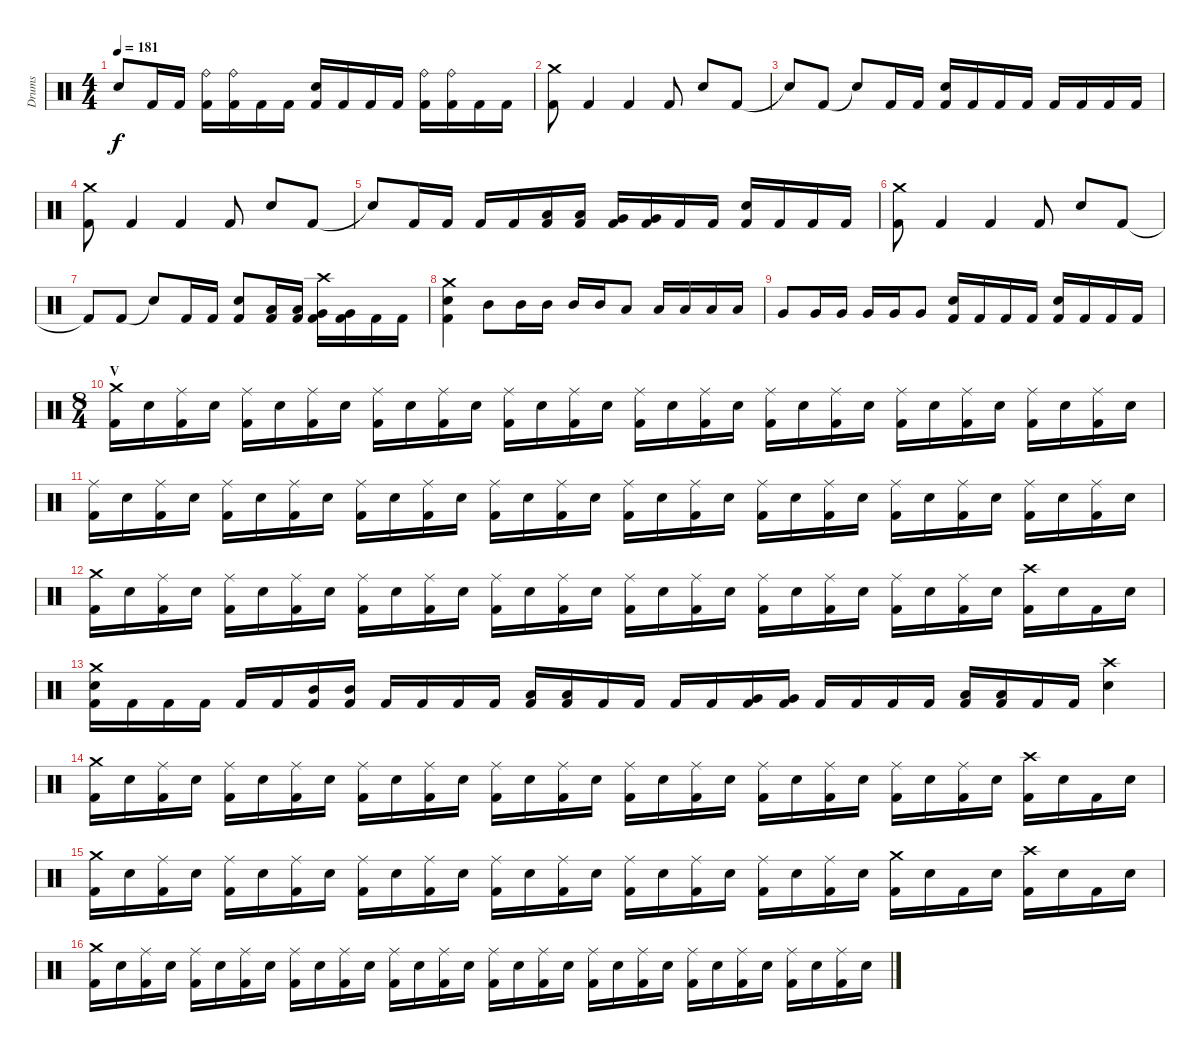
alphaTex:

\track ("Drums" "Drums") {instrument percussion}
\staff {score}
\articulation defaults
\ts (4 4)
\tempo 181
\clef neutral
\ks c "Snare (hit)"{t}.8{dy f} "Kick (hit) 2".16 "Kick (hit) 2".16
("Ride (bell)" "Kick (hit) 2").16 ("Ride (bell)" "Kick (hit) 2").16 "Kick (hit) 2".16 "Kick (hit) 2".16 ("Electric Snare (hit)" "Kick (hit) 2").16 "Kick (hit) 2".16 "Kick (hit) 2".16 "Kick (hit) 2".16 ("Ride (bell)" "Kick (hit) 2").16 ("Ride (bell)" "Kick (hit) 2").16 "Kick (hit) 2".16 "Kick (hit) 2".16 |
("Crash medium (hit)" "Kick (hit) 2").8 "Kick (hit) 2".4 "Kick (hit) 2".4 "Kick (hit) 2".8 "Electric Snare (hit)".8 "Kick (hit) 2".8 |
"Snare (hit)"{t}.8 "Kick (hit) 2".8 "Snare (hit)"{t}.8 "Kick (hit) 2".16 "Kick (hit) 2".16 ("Electric Snare (hit)" "Kick (hit) 2").16 "Kick (hit) 2".16 "Kick (hit) 2".16 "Kick (hit) 2".16 "Kick (hit) 2".16 "Kick (hit) 2".16 "Kick (hit) 2".16 "Kick (hit) 2".16 |
("Crash medium (hit)" "Kick (hit) 2").8 "Kick (hit) 2".4 "Kick (hit) 2".4 "Kick (hit) 2".8 "Electric Snare (hit)".8 "Kick (hit) 2".8 |
"Snare (hit)"{t}.8 "Kick (hit) 2".16 "Kick (hit) 2".16 "Kick (hit) 2".16 "Kick (hit) 2".16 ("Low Tom (hit)" "Kick (hit) 2").16 ("Low Tom (hit)" "Kick (hit) 2").16 ("Very Low Tom (hit)" "Kick (hit) 2").16 ("Very Low Tom (hit)" "Kick (hit) 2").16 "Kick (hit) 2".16 "Kick (hit) 2".16 ("Electric Snare (hit)" "Kick (hit) 2").16 "Kick (hit) 2".16 "Kick (hit) 2".16 "Kick (hit) 2".16 |
("Crash medium (hit)" "Kick (hit) 2").8 "Kick (hit) 2".4 "Kick (hit) 2".4 "Kick (hit) 2".8 "Electric Snare (hit)".8 "Kick (hit) 2".8 |
"Kick (hit) 2"{t}.8 "Kick (hit) 2".8 "Snare (hit)"{t}.8 "Kick (hit) 2".16 "Kick (hit) 2".16 ("Electric Snare (hit)" "Kick (hit) 2").8 ("Low Tom (hit)" "Kick (hit) 2").16 ("Low Tom (hit)" "Kick (hit) 2").16 ("Crash high (hit)" "Very Low Tom (hit)" "Kick (hit) 2").16 ("Very Low Tom (hit)" "Kick (hit) 2").16 "Kick (hit) 2".16 "Kick (hit) 2".16 |
("Crash medium (hit)" "Electric Snare (hit)" "Kick (hit) 2").4 "Mid Tom (hit)".8 "Mid Tom (hit)".16 "Mid Tom (hit)".16 "Mid Tom (hit)".16 "Mid Tom (hit)".16 "Low Tom (hit)".8 "Low Tom (hit)".16 "Low Tom (hit)".16 "Low Tom (hit)".16 "Low Tom (hit)".16 |
"Very Low Tom (hit)".8 "Very Low Tom (hit)".16 "Very Low Tom (hit)".16 "Very Low Tom (hit)".16 "Very Low Tom (hit)".16 "Very Low Tom (hit)".8 ("Electric Snare (hit)" "Kick (hit) 2").16 "Kick (hit) 2".16 "Kick (hit) 2".16 "Kick (hit) 2".16 ("Electric Snare (hit)" "Kick (hit) 2").16 "Kick (hit) 2".16 "Kick (hit) 2".16 "Kick (hit) 2".16 |
\ts (8 4)
\section ("" "V")
("Crash medium (hit)" "Kick (hit) 2").16 "Electric Snare (hit)".16 ("Ride (middle)" "Kick (hit) 2").16 "Electric Snare (hit)".16 ("Ride (middle)" "Kick (hit) 2").16 "Electric Snare (hit)".16 ("Ride (middle)" "Kick (hit) 2").16 "Electric Snare (hit)".16 ("Ride (middle)" "Kick (hit) 2").16 "Electric Snare (hit)".16 ("Ride (middle)" "Kick (hit) 2").16 "Electric Snare (hit)".16 ("Ride (middle)" "Kick (hit) 2").16 "Electric Snare (hit)".16 ("Ride (middle)" "Kick (hit) 2").16 "Electric Snare (hit)".16 ("Ride (middle)" "Kick (hit) 2").16 "Electric Snare (hit)".16 ("Ride (middle)" "Kick (hit) 2").16 "Electric Snare (hit)".16 ("Ride (middle)" "Kick (hit) 2").16 "Electric Snare (hit)".16 ("Ride (middle)" "Kick (hit) 2").16 "Electric Snare (hit)".16 ("Ride (middle)" "Kick (hit) 2").16 "Electric Snare (hit)".16 ("Ride (middle)" "Kick (hit) 2").16 "Electric Snare (hit)".16 ("Ride (middle)" "Kick (hit) 2").16 "Electric Snare (hit)".16 ("Ride (middle)" "Kick (hit) 2").16 "Electric Snare (hit)".16 |
("Ride (middle)" "Kick (hit) 2").16 "Electric Snare (hit)".16 ("Ride (middle)" "Kick (hit) 2").16 "Electric Snare (hit)".16 ("Ride (middle)" "Kick (hit) 2").16 "Electric Snare (hit)".16 ("Ride (middle)" "Kick (hit) 2").16 "Electric Snare (hit)".16 ("Ride (middle)" "Kick (hit) 2").16 "Electric Snare (hit)".16 ("Ride (middle)" "Kick (hit) 2").16 "Electric Snare (hit)".16 ("Ride (middle)" "Kick (hit) 2").16 "Electric Snare (hit)".16 ("Ride (middle)" "Kick (hit) 2").16 "Electric Snare (hit)".16 ("Ride (middle)" "Kick (hit) 2").16 "Electric Snare (hit)".16 ("Ride (middle)" "Kick (hit) 2").16 "Electric Snare (hit)".16 ("Ride (middle)" "Kick (hit) 2").16 "Electric Snare (hit)".16 ("Ride (middle)" "Kick (hit) 2").16 "Electric Snare (hit)".16 ("Ride (middle)" "Kick (hit) 2").16 "Electric Snare (hit)".16 ("Ride (middle)" "Kick (hit) 2").16 "Electric Snare (hit)".16 ("Ride (middle)" "Kick (hit) 2").16 "Electric Snare (hit)".16 ("Ride (middle)" "Kick (hit) 2").16 "Electric Snare (hit)".16 |
("Crash medium (hit)" "Kick (hit) 2").16 "Electric Snare (hit)".16 ("Ride (middle)" "Kick (hit) 2").16 "Electric Snare (hit)".16 ("Ride (middle)" "Kick (hit) 2").16 "Electric Snare (hit)".16 ("Ride (middle)" "Kick (hit) 2").16 "Electric Snare (hit)".16 ("Ride (middle)" "Kick (hit) 2").16 "Electric Snare (hit)".16 ("Ride (middle)" "Kick (hit) 2").16 "Electric Snare (hit)".16 ("Ride (middle)" "Kick (hit) 2").16 "Electric Snare (hit)".16 ("Ride (middle)" "Kick (hit) 2").16 "Electric Snare (hit)".16 ("Ride (middle)" "Kick (hit) 2").16 "Electric Snare (hit)".16 ("Ride (middle)" "Kick (hit) 2").16 "Electric Snare (hit)".16 ("Ride (middle)" "Kick (hit) 2").16 "Electric Snare (hit)".16 ("Ride (middle)" "Kick (hit) 2").16 "Electric Snare (hit)".16 ("Ride (middle)" "Kick (hit) 2").16 "Electric Snare (hit)".16 ("Ride (middle)" "Kick (hit) 2").16 "Electric Snare (hit)".16 ("Crash high (hit)" "Kick (hit) 2").16 "Electric Snare (hit)".16 "Kick (hit) 2".16 "Electric Snare (hit)".16 |
("Crash medium (hit)" "Electric Snare (hit)" "Kick (hit) 2").16 "Kick (hit) 2".16 "Kick (hit) 2".16 "Kick (hit) 2".16 "Kick (hit) 2".16 "Kick (hit) 2".16 ("Mid Tom (hit)" "Kick (hit) 2").16 ("Mid Tom (hit)" "Kick (hit) 2").16 "Kick (hit) 2".16 "Kick (hit) 2".16 "Kick (hit) 2".16 "Kick (hit) 2".16 ("Low Tom (hit)" "Kick (hit) 2").16 ("Low Tom (hit)" "Kick (hit) 2").16 "Kick (hit) 2".16 "Kick (hit) 2".16 "Kick (hit) 2".16 "Kick (hit) 2".16 ("Very Low Tom (hit)" "Kick (hit) 2").16 ("Very Low Tom (hit)" "Kick (hit) 2").16 "Kick (hit) 2".16 "Kick (hit) 2".16 "Kick (hit) 2".16 "Kick (hit) 2".16 ("Low Floor Tom (hit)" "Kick (hit) 2").16 ("Low Floor Tom (hit)" "Kick (hit) 2").16 "Kick (hit) 2".16 "Kick (hit) 2".16 ("Crash high (hit)" "Electric Snare (hit)").4 |
("Crash medium (hit)" "Kick (hit) 2").16 "Electric Snare (hit)".16 ("Ride (middle)" "Kick (hit) 2").16 "Electric Snare (hit)".16 ("Ride (middle)" "Kick (hit) 2").16 "Electric Snare (hit)".16 ("Ride (middle)" "Kick (hit) 2").16 "Electric Snare (hit)".16 ("Ride (middle)" "Kick (hit) 2").16 "Electric Snare (hit)".16 ("Ride (middle)" "Kick (hit) 2").16 "Electric Snare (hit)".16 ("Ride (middle)" "Kick (hit) 2").16 "Electric Snare (hit)".16 ("Ride (middle)" "Kick (hit) 2").16 "Electric Snare (hit)".16 ("Ride (middle)" "Kick (hit) 2").16 "Electric Snare (hit)".16 ("Ride (middle)" "Kick (hit) 2").16 "Electric Snare (hit)".16 ("Ride (middle)" "Kick (hit) 2").16 "Electric Snare (hit)".16 ("Ride (middle)" "Kick (hit) 2").16 "Electric Snare (hit)".16 ("Ride (middle)" "Kick (hit) 2").16 "Electric Snare (hit)".16 ("Ride (middle)" "Kick (hit) 2").16 "Electric Snare (hit)".16 ("Crash high (hit)" "Kick (hit) 2").16 "Electric Snare (hit)".16 "Kick (hit) 2".16 "Electric Snare (hit)".16 |
("Crash medium (hit)" "Kick (hit) 2").16 "Electric Snare (hit)".16 ("Ride (middle)" "Kick (hit) 2").16 "Electric Snare (hit)".16 ("Ride (middle)" "Kick (hit) 2").16 "Electric Snare (hit)".16 ("Ride (middle)" "Kick (hit) 2").16 "Electric Snare (hit)".16 ("Ride (middle)" "Kick (hit) 2").16 "Electric Snare (hit)".16 ("Ride (middle)" "Kick (hit) 2").16 "Electric Snare (hit)".16 ("Ride (middle)" "Kick (hit) 2").16 "Electric Snare (hit)".16 ("Ride (middle)" "Kick (hit) 2").16 "Electric Snare (hit)".16 ("Ride (middle)" "Kick (hit) 2").16 "Electric Snare (hit)".16 ("Ride (middle)" "Kick (hit) 2").16 "Electric Snare (hit)".16 ("Ride (middle)" "Kick (hit) 2").16 "Electric Snare (hit)".16 ("Ride (middle)" "Kick (hit) 2").16 "Electric Snare (hit)".16 ("Crash medium (hit)" "Kick (hit) 2").16 "Electric Snare (hit)".16 "Kick (hit) 2".16 "Electric Snare (hit)".16 ("Crash high (hit)" "Kick (hit) 2").16 "Electric Snare (hit)".16 "Kick (hit) 2".16 "Electric Snare (hit)".16 |
("Crash medium (hit)" "Kick (hit) 2").16 "Electric Snare (hit)".16 ("Ride (middle)" "Kick (hit) 2").16 "Electric Snare (hit)".16 ("Ride (middle)" "Kick (hit) 2").16 "Electric Snare (hit)".16 ("Ride (middle)" "Kick (hit) 2").16 "Electric Snare (hit)".16 ("Ride (middle)" "Kick (hit) 2").16 "Electric Snare (hit)".16 ("Ride (middle)" "Kick (hit) 2").16 "Electric Snare (hit)".16 ("Ride (middle)" "Kick (hit) 2").16 "Electric Snare (hit)".16 ("Ride (middle)" "Kick (hit) 2").16 "Electric Snare (hit)".16 ("Ride (middle)" "Kick (hit) 2").16 "Electric Snare (hit)".16 ("Ride (middle)" "Kick (hit) 2").16 "Electric Snare (hit)".16 ("Ride (middle)" "Kick (hit) 2").16 "Electric Snare (hit)".16 ("Ride (middle)" "Kick (hit) 2").16 "Electric Snare (hit)".16 ("Ride (middle)" "Kick (hit) 2").16 "Electric Snare (hit)".16 ("Ride (middle)" "Kick (hit) 2").16 "Electric Snare (hit)".16 ("Ride (middle)" "Kick (hit) 2").16 "Electric Snare (hit)".16 ("Ride (middle)" "Kick (hit) 2").16 "Electric Snare (hit)".16
